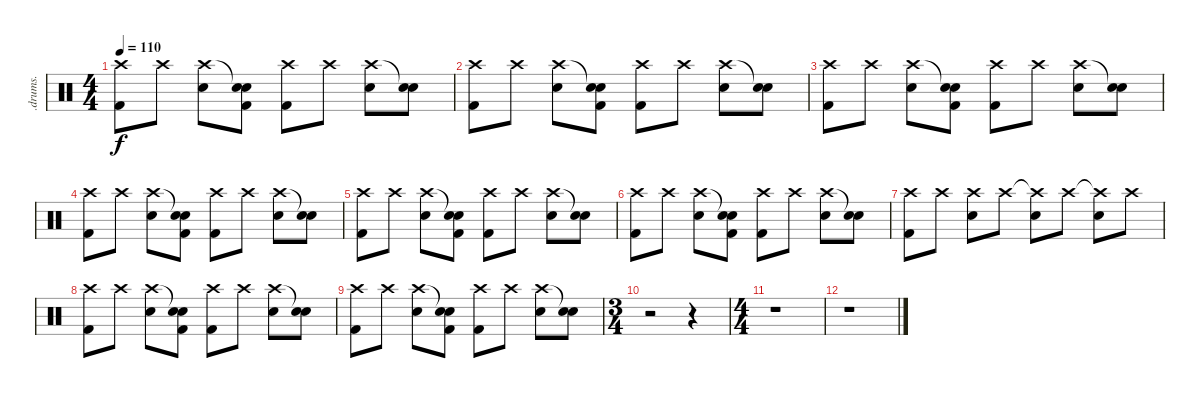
\track (".drums." ".drums.") {instrument percussion}
\staff {score}
\articulation defaults
\ts (4 4)
\tempo 110
\clef neutral
\ks c
("Crash high (hit)" "Kick (hit) 2").8{dy f} "Crash high (hit)".8 ("Crash high (hit)" "Snare (hit) 2").8 ("Snare (hit)"{t} "Snare (hit) 2" "Kick (hit) 2").8 ("Crash high (hit)" "Kick (hit) 2").8 "Crash high (hit)".8 ("Crash high (hit)" "Snare (hit) 2").8 ("Snare (hit)"{t} "Snare (hit) 2").8 |
("Crash high (hit)" "Kick (hit) 2").8 "Crash high (hit)".8 ("Crash high (hit)" "Snare (hit) 2").8 ("Snare (hit)"{t} "Snare (hit) 2" "Kick (hit) 2").8 ("Crash high (hit)" "Kick (hit) 2").8 "Crash high (hit)".8 ("Crash high (hit)" "Snare (hit) 2").8 ("Snare (hit)"{t} "Snare (hit) 2").8 |
("Crash high (hit)" "Kick (hit) 2").8 "Crash high (hit)".8 ("Crash high (hit)" "Snare (hit) 2").8 ("Snare (hit)"{t} "Snare (hit) 2" "Kick (hit) 2").8 ("Crash high (hit)" "Kick (hit) 2").8 "Crash high (hit)".8 ("Crash high (hit)" "Snare (hit) 2").8 ("Snare (hit)"{t} "Snare (hit) 2").8 |
("Crash high (hit)" "Kick (hit) 2").8 "Crash high (hit)".8 ("Crash high (hit)" "Snare (hit) 2").8 ("Snare (hit)"{t} "Snare (hit) 2" "Kick (hit) 2").8 ("Crash high (hit)" "Kick (hit) 2").8 "Crash high (hit)".8 ("Crash high (hit)" "Snare (hit) 2").8 ("Snare (hit)"{t} "Snare (hit) 2").8 |
("Crash high (hit)" "Kick (hit) 2").8 "Crash high (hit)".8 ("Crash high (hit)" "Snare (hit) 2").8 ("Snare (hit)"{t} "Snare (hit) 2" "Kick (hit) 2").8 ("Crash high (hit)" "Kick (hit) 2").8 "Crash high (hit)".8 ("Crash high (hit)" "Snare (hit) 2").8 ("Snare (hit)"{t} "Snare (hit) 2").8 |
("Crash high (hit)" "Kick (hit) 2").8 "Crash high (hit)".8 ("Crash high (hit)" "Snare (hit) 2").8 ("Snare (hit)"{t} "Snare (hit) 2" "Kick (hit) 2").8 ("Crash high (hit)" "Kick (hit) 2").8 "Crash high (hit)".8 ("Crash high (hit)" "Snare (hit) 2").8 ("Snare (hit)"{t} "Snare (hit) 2").8 |
("Crash high (hit)" "Kick (hit) 2").8 "Crash high (hit)".8 ("Crash high (hit)" "Snare (hit) 2").8 "Crash high (hit)".8 ("Crash high (hit)"{t} "Snare (hit) 2").8 "Crash high (hit)".8 ("Crash high (hit)"{t} "Snare (hit) 2").8 "Crash high (hit)".8 |
("Crash high (hit)" "Kick (hit) 2").8 "Crash high (hit)".8 ("Crash high (hit)" "Snare (hit) 2").8 ("Snare (hit)"{t} "Snare (hit) 2" "Kick (hit) 2").8 ("Crash high (hit)" "Kick (hit) 2").8 "Crash high (hit)".8 ("Crash high (hit)" "Snare (hit) 2").8 ("Snare (hit)"{t} "Snare (hit) 2").8 |
("Crash high (hit)" "Kick (hit) 2").8 "Crash high (hit)".8 ("Crash high (hit)" "Snare (hit) 2").8 ("Snare (hit)"{t} "Snare (hit) 2" "Kick (hit) 2").8 ("Crash high (hit)" "Kick (hit) 2").8 "Crash high (hit)".8 ("Crash high (hit)" "Snare (hit) 2").8 ("Snare (hit)"{t} "Snare (hit) 2").8 |
\ts (3 4)
r.2 r.4 |
\ts (4 4)
r.1 |
r.1
